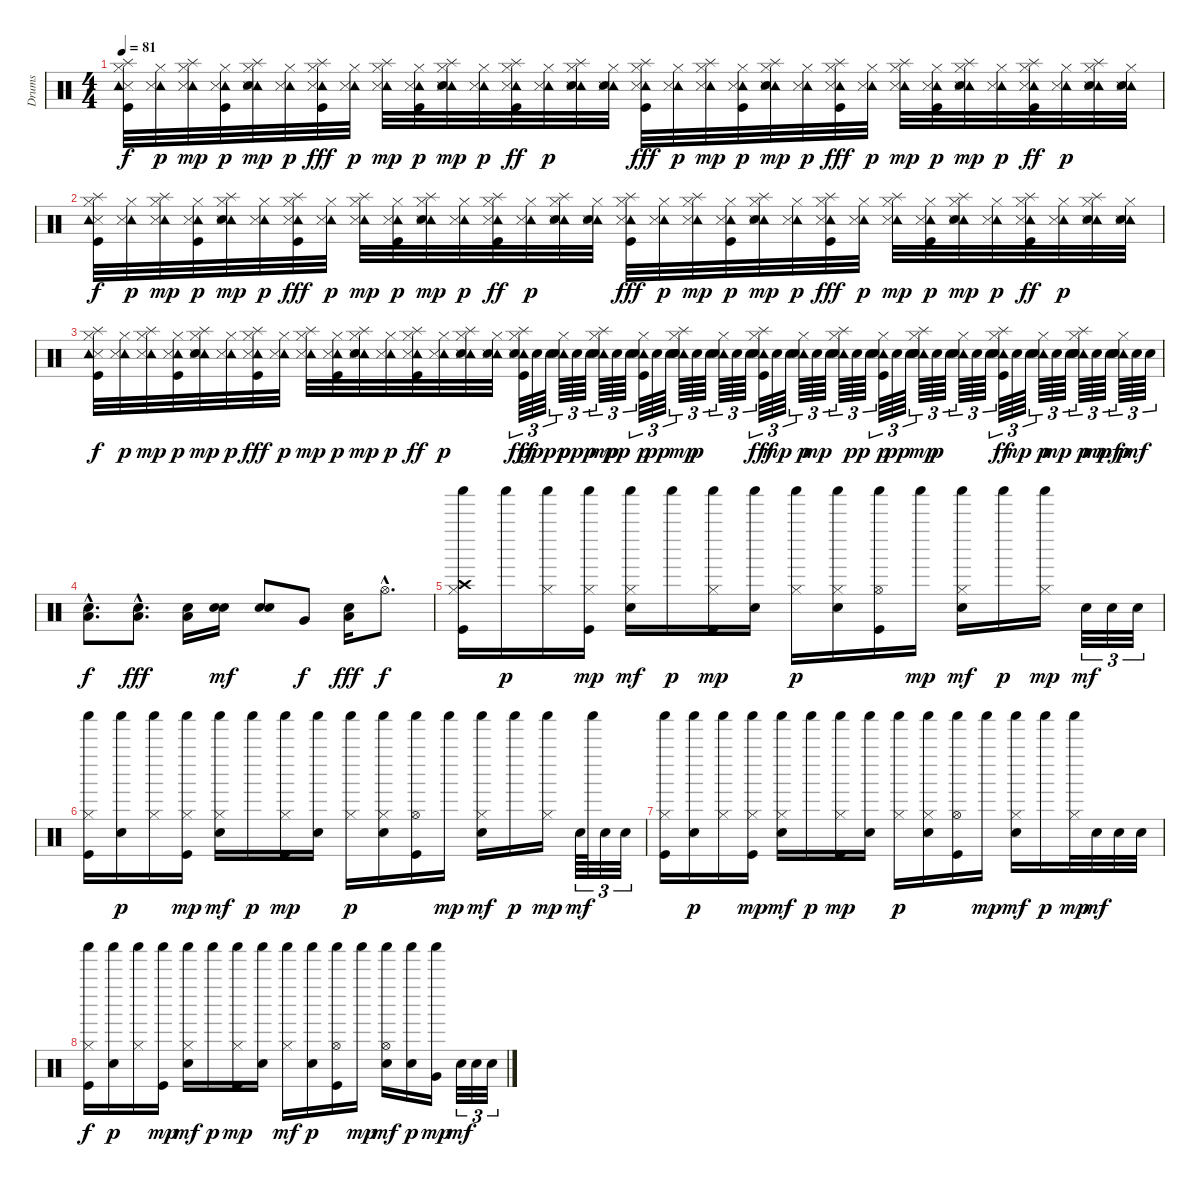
\track ("Drums" "Drums") {instrument percussion}
\staff {score}
\articulation defaults
\ts (4 4)
\tempo 81
\clef neutral
\ks c
("Splash (hit)" "Hi-Hat (closed)" "Snare (side stick) 3" "Kick (hit)" "Tambourine (hit)").32{dy f} ("Tambourine (hit)" "Hi-Hat (closed)" "Snare (side stick) 3").32{dy p} ("Tambourine (hit)" "Splash (hit)" "Hi-Hat (closed)" "Snare (side stick) 3").32{dy mp} ("Tambourine (hit)" "Hi-Hat (closed)" "Snare (side stick) 3" "Kick (hit)").32{dy p} ("Tambourine (hit)" "Splash (hit)" "Hi-Hat (closed)" "Snare (side stick) 3" "Snare (hit) 2").32{dy mp} ("Tambourine (hit)" "Hi-Hat (closed)" "Snare (side stick) 3").32{dy p} ("Tambourine (hit)" "Splash (hit)" "Hi-Hat (closed)" "Snare (side stick) 3" "Kick (hit)").32{dy fff} ("Tambourine (hit)" "Hi-Hat (closed)" "Snare (side stick) 3").32{dy p} ("Tambourine (hit)" "Splash (hit)" "Hi-Hat (closed)" "Snare (side stick) 3").32{dy mp} ("Tambourine (hit)" "Hi-Hat (closed)" "Snare (side stick) 3" "Kick (hit)").32{dy p} ("Tambourine (hit)" "Splash (hit)" "Hi-Hat (closed)" "Snare (side stick) 3" "Snare (hit) 2").32{dy mp} ("Tambourine (hit)" "Hi-Hat (closed)" "Snare (side stick) 3").32{dy p} ("Tambourine (hit)" "Splash (hit)" "Hi-Hat (closed)" "Snare (side stick) 3" "Kick (hit)").32{dy ff} ("Tambourine (hit)" "Hi-Hat (closed)" "Snare (side stick) 3").32{dy p} ("Tambourine (hit)" "Splash (hit)" "Hi-Hat (closed)" "Snare (side stick) 3" "Snare (hit) 2").32 ("Tambourine (hit)" "Hi-Hat (closed)" "Snare (side stick) 3" "Snare (hit) 2").32 ("Tambourine (hit)" "Splash (hit)" "Hi-Hat (closed)" "Snare (side stick) 3" "Kick (hit)").32{dy fff} ("Tambourine (hit)" "Hi-Hat (closed)" "Snare (side stick) 3").32{dy p} ("Tambourine (hit)" "Splash (hit)" "Hi-Hat (closed)" "Snare (side stick) 3").32{dy mp} ("Tambourine (hit)" "Hi-Hat (closed)" "Snare (side stick) 3" "Kick (hit)").32{dy p} ("Tambourine (hit)" "Splash (hit)" "Hi-Hat (closed)" "Snare (side stick) 3" "Snare (hit) 2").32{dy mp} ("Tambourine (hit)" "Hi-Hat (closed)" "Snare (side stick) 3").32{dy p} ("Tambourine (hit)" "Splash (hit)" "Hi-Hat (closed)" "Snare (side stick) 3" "Kick (hit)").32{dy fff} ("Tambourine (hit)" "Hi-Hat (closed)" "Snare (side stick) 3").32{dy p} ("Tambourine (hit)" "Splash (hit)" "Hi-Hat (closed)" "Snare (side stick) 3").32{dy mp} ("Tambourine (hit)" "Hi-Hat (closed)" "Snare (side stick) 3" "Kick (hit)").32{dy p} ("Tambourine (hit)" "Splash (hit)" "Hi-Hat (closed)" "Snare (side stick) 3" "Snare (hit) 2").32{dy mp} ("Tambourine (hit)" "Hi-Hat (closed)" "Snare (side stick) 3").32{dy p} ("Tambourine (hit)" "Splash (hit)" "Hi-Hat (closed)" "Snare (side stick) 3" "Kick (hit)").32{dy ff} ("Tambourine (hit)" "Hi-Hat (closed)" "Snare (side stick) 3").32{dy p} ("Tambourine (hit)" "Splash (hit)" "Hi-Hat (closed)" "Snare (side stick) 3" "Snare (hit) 2").32 ("Tambourine (hit)" "Hi-Hat (closed)" "Snare (side stick) 3" "Snare (hit) 2").32 |
("Hi-Hat (closed)" "Snare (side stick) 3" "Kick (hit)" "Splash (hit)" "Tambourine (hit)").32{dy f} ("Tambourine (hit)" "Hi-Hat (closed)" "Snare (side stick) 3").32{dy p} ("Tambourine (hit)" "Splash (hit)" "Hi-Hat (closed)" "Snare (side stick) 3").32{dy mp} ("Tambourine (hit)" "Hi-Hat (closed)" "Snare (side stick) 3" "Kick (hit)").32{dy p} ("Tambourine (hit)" "Splash (hit)" "Hi-Hat (closed)" "Snare (side stick) 3" "Snare (hit) 2").32{dy mp} ("Tambourine (hit)" "Hi-Hat (closed)" "Snare (side stick) 3").32{dy p} ("Tambourine (hit)" "Splash (hit)" "Hi-Hat (closed)" "Snare (side stick) 3" "Kick (hit)").32{dy fff} ("Tambourine (hit)" "Hi-Hat (closed)" "Snare (side stick) 3").32{dy p} ("Tambourine (hit)" "Splash (hit)" "Hi-Hat (closed)" "Snare (side stick) 3").32{dy mp} ("Tambourine (hit)" "Hi-Hat (closed)" "Snare (side stick) 3" "Kick (hit)").32{dy p} ("Tambourine (hit)" "Splash (hit)" "Hi-Hat (closed)" "Snare (side stick) 3" "Snare (hit) 2").32{dy mp} ("Tambourine (hit)" "Hi-Hat (closed)" "Snare (side stick) 3").32{dy p} ("Tambourine (hit)" "Splash (hit)" "Hi-Hat (closed)" "Snare (side stick) 3" "Kick (hit)").32{dy ff} ("Tambourine (hit)" "Hi-Hat (closed)" "Snare (side stick) 3").32{dy p} ("Tambourine (hit)" "Splash (hit)" "Hi-Hat (closed)" "Snare (side stick) 3" "Snare (hit) 2").32 ("Tambourine (hit)" "Hi-Hat (closed)" "Snare (side stick) 3" "Snare (hit) 2").32 ("Tambourine (hit)" "Splash (hit)" "Hi-Hat (closed)" "Snare (side stick) 3" "Kick (hit)").32{dy fff} ("Tambourine (hit)" "Hi-Hat (closed)" "Snare (side stick) 3").32{dy p} ("Tambourine (hit)" "Splash (hit)" "Hi-Hat (closed)" "Snare (side stick) 3").32{dy mp} ("Tambourine (hit)" "Hi-Hat (closed)" "Snare (side stick) 3" "Kick (hit)").32{dy p} ("Tambourine (hit)" "Splash (hit)" "Hi-Hat (closed)" "Snare (side stick) 3" "Snare (hit) 2").32{dy mp} ("Tambourine (hit)" "Hi-Hat (closed)" "Snare (side stick) 3").32{dy p} ("Tambourine (hit)" "Splash (hit)" "Hi-Hat (closed)" "Snare (side stick) 3" "Kick (hit)").32{dy fff} ("Tambourine (hit)" "Hi-Hat (closed)" "Snare (side stick) 3").32{dy p} ("Tambourine (hit)" "Splash (hit)" "Hi-Hat (closed)" "Snare (side stick) 3").32{dy mp} ("Tambourine (hit)" "Hi-Hat (closed)" "Snare (side stick) 3" "Kick (hit)").32{dy p} ("Tambourine (hit)" "Splash (hit)" "Hi-Hat (closed)" "Snare (side stick) 3" "Snare (hit) 2").32{dy mp} ("Tambourine (hit)" "Hi-Hat (closed)" "Snare (side stick) 3").32{dy p} ("Tambourine (hit)" "Splash (hit)" "Hi-Hat (closed)" "Snare (side stick) 3" "Kick (hit)").32{dy ff} ("Tambourine (hit)" "Hi-Hat (closed)" "Snare (side stick) 3").32{dy p} ("Tambourine (hit)" "Splash (hit)" "Hi-Hat (closed)" "Snare (side stick) 3" "Snare (hit) 2").32 ("Tambourine (hit)" "Hi-Hat (closed)" "Snare (side stick) 3" "Snare (hit) 2").32 |
("Hi-Hat (closed)" "Snare (side stick) 3" "Kick (hit)" "Tambourine (hit)" "Splash (hit)").32{dy f} ("Tambourine (hit)" "Hi-Hat (closed)" "Snare (side stick) 3").32{dy p} ("Tambourine (hit)" "Splash (hit)" "Hi-Hat (closed)" "Snare (side stick) 3").32{dy mp} ("Tambourine (hit)" "Hi-Hat (closed)" "Snare (side stick) 3" "Kick (hit)").32{dy p} ("Tambourine (hit)" "Splash (hit)" "Hi-Hat (closed)" "Snare (side stick) 3" "Snare (hit) 2").32{dy mp} ("Tambourine (hit)" "Hi-Hat (closed)" "Snare (side stick) 3").32{dy p} ("Tambourine (hit)" "Splash (hit)" "Hi-Hat (closed)" "Snare (side stick) 3" "Kick (hit)").32{dy fff} ("Tambourine (hit)" "Hi-Hat (closed)" "Snare (side stick) 3").32{dy p} ("Tambourine (hit)" "Splash (hit)" "Hi-Hat (closed)" "Snare (side stick) 3").32{dy mp} ("Tambourine (hit)" "Hi-Hat (closed)" "Snare (side stick) 3" "Kick (hit)").32{dy p} ("Tambourine (hit)" "Splash (hit)" "Hi-Hat (closed)" "Snare (side stick) 3" "Snare (hit) 2").32{dy mp} ("Tambourine (hit)" "Hi-Hat (closed)" "Snare (side stick) 3").32{dy p} ("Tambourine (hit)" "Splash (hit)" "Hi-Hat (closed)" "Snare (side stick) 3" "Kick (hit)").32{dy ff} ("Tambourine (hit)" "Hi-Hat (closed)" "Snare (side stick) 3").32{dy p} ("Tambourine (hit)" "Splash (hit)" "Hi-Hat (closed)" "Snare (side stick) 3" "Snare (hit) 2").32 ("Tambourine (hit)" "Hi-Hat (closed)" "Snare (side stick) 3" "Snare (hit) 2").32 ("Tambourine (hit)" "Snare (hit) 2" "Splash (hit)" "Hi-Hat (closed)" "Snare (side stick) 3" "Kick (hit)").64{tu (3 2) dy fff} "Snare (hit) 2".64{tu (3 2) dy ppp} "Snare (hit) 2".64{tu (3 2)} ("Tambourine (hit)" "Snare (hit) 2" "Hi-Hat (closed)" "Snare (side stick) 3").64{tu (3 2) dy p} "Snare (hit) 2".64{tu (3 2) dy ppp} "Snare (hit) 2".64{tu (3 2)} ("Tambourine (hit)" "Snare (hit) 2" "Splash (hit)" "Hi-Hat (closed)" "Snare (side stick) 3").64{tu (3 2) dy mp} "Snare (hit) 2".64{tu (3 2) dy pp} "Snare (hit) 2".64{tu (3 2)} ("Tambourine (hit)" "Snare (hit) 2" "Hi-Hat (closed)" "Snare (side stick) 3" "Kick (hit)").64{tu (3 2) dy p} "Snare (hit) 2".64{tu (3 2) dy pp} "Snare (hit) 2".64{tu (3 2)} ("Tambourine (hit)" "Snare (hit) 2" "Splash (hit)" "Hi-Hat (closed)" "Snare (side stick) 3" "Snare (hit) 2").64{tu (3 2) dy mp} "Snare (hit) 2".64{tu (3 2) dy p} "Snare (hit) 2".64{tu (3 2)} ("Tambourine (hit)" "Snare (hit) 2" "Hi-Hat (closed)" "Snare (side stick) 3").64{tu (3 2)} "Snare (hit) 2".64{tu (3 2)} "Snare (hit) 2".64{tu (3 2)} ("Tambourine (hit)" "Snare (hit) 2" "Splash (hit)" "Hi-Hat (closed)" "Snare (side stick) 3" "Kick (hit)").64{tu (3 2) dy fff} "Snare (hit) 2".64{tu (3 2) dy mp} "Snare (hit) 2".64{tu (3 2)} ("Tambourine (hit)" "Snare (hit) 2" "Hi-Hat (closed)" "Snare (side stick) 3").64{tu (3 2) dy p} "Snare (hit) 2".64{tu (3 2) dy mp} "Snare (hit) 2".64{tu (3 2)} ("Tambourine (hit)" "Snare (hit) 2" "Splash (hit)" "Hi-Hat (closed)" "Snare (side stick) 3").64{tu (3 2)} "Snare (hit) 2".64{tu (3 2) dy pp} "Snare (hit) 2".64{tu (3 2)} ("Tambourine (hit)" "Snare (hit) 2" "Hi-Hat (closed)" "Snare (side stick) 3" "Kick (hit)").64{tu (3 2) dy p} "Snare (hit) 2".64{tu (3 2) dy pp} "Snare (hit) 2".64{tu (3 2)} ("Tambourine (hit)" "Snare (hit) 2" "Splash (hit)" "Hi-Hat (closed)" "Snare (side stick) 3" "Snare (hit) 2").64{tu (3 2) dy mp} "Snare (hit) 2".64{tu (3 2) dy p} "Snare (hit) 2".64{tu (3 2)} ("Tambourine (hit)" "Snare (hit) 2" "Hi-Hat (closed)" "Snare (side stick) 3").64{tu (3 2)} "Snare (hit) 2".64{tu (3 2)} "Snare (hit) 2".64{tu (3 2)} ("Tambourine (hit)" "Snare (hit) 2" "Splash (hit)" "Hi-Hat (closed)" "Snare (side stick) 3" "Kick (hit)").64{tu (3 2) dy ff} "Snare (hit) 2".64{tu (3 2) dy mp} "Snare (hit) 2".64{tu (3 2)} ("Tambourine (hit)" "Snare (hit) 2" "Hi-Hat (closed)" "Snare (side stick) 3").64{tu (3 2) dy p} "Snare (hit) 2".64{tu (3 2) dy mp} "Snare (hit) 2".64{tu (3 2)} ("Tambourine (hit)" "Snare (hit) 2" "Splash (hit)" "Hi-Hat (closed)" "Snare (side stick) 3" "Snare (hit) 2").64{tu (3 2) dy p} "Snare (hit) 2".64{tu (3 2) dy mp} "Snare (hit) 2".64{tu (3 2) dy mf} ("Tambourine (hit)" "Snare (hit) 2" "Hi-Hat (closed)" "Snare (side stick) 3" "Snare (hit) 2").64{tu (3 2) dy p} "Snare (hit) 2".64{tu (3 2) dy mf} "Snare (hit) 2".64{tu (3 2)} |
("Low Floor Tom (hit)"{hac} "Snare (hit) 2"{hac}).8{d dy f} ("Low Floor Tom (hit)"{hac} "Snare (hit) 2"{hac}).8{d dy fff} ("Low Floor Tom (hit)" "Snare (hit) 2").16 ("Snare (hit) 2" "Snare (hit) 2").16{dy mf} ("Snare (hit) 2" "Snare (hit) 2").8 "Very Low Tom (hit)".8{dy f} ("Low Floor Tom (hit)" "Snare (hit) 2").16{dy fff} "Hi-Hat (open)"{hac}.8{d dy f} |
("Kick (hit)" "Hi-Hat (closed)" "Shaker (hit)" "Crash high (hit)").16 "Shaker (hit)".16{dy p} ("Hi-Hat (closed)" "Shaker (hit)").16 ("Kick (hit)" "Hi-Hat (closed)" "Shaker (hit)").16{dy mp} ("Snare (hit) 2" "Hi-Hat (closed)" "Shaker (hit)").16{dy mf} "Shaker (hit)".16{dy p} ("Kick (hit)" "Hi-Hat (closed)" "Shaker (hit)").16{dy mp} ("Snare (hit) 2" "Shaker (hit)").16 ("Hi-Hat (closed)" "Shaker (hit)").16{dy p} ("Snare (hit) 2" "Hi-Hat (closed)" "Shaker (hit)").16 ("Kick (hit)" "Hi-Hat (open)" "Shaker (hit)").16 "Shaker (hit)".16{dy mp} ("Snare (hit) 2" "Hi-Hat (closed)" "Shaker (hit)").16{dy mf} "Shaker (hit)".16{dy p} ("Hi-Hat (closed)" "Shaker (hit)").16{dy mp} "Snare (hit) 2".32{tu (3 2) dy mf} "Snare (hit) 2".32{tu (3 2)} "Snare (hit) 2".32{tu (3 2)} |
("Kick (hit)" "Hi-Hat (closed)" "Shaker (hit)").16 ("Snare (hit) 2" "Shaker (hit)").16{dy p} ("Hi-Hat (closed)" "Shaker (hit)").16 ("Kick (hit)" "Hi-Hat (closed)" "Shaker (hit)").16{dy mp} ("Snare (hit) 2" "Hi-Hat (closed)" "Shaker (hit)").16{dy mf} "Shaker (hit)".16{dy p} ("Kick (hit)" "Hi-Hat (closed)" "Shaker (hit)").16{dy mp} ("Snare (hit) 2" "Shaker (hit)").16 ("Hi-Hat (closed)" "Shaker (hit)").16{dy p} ("Snare (hit) 2" "Hi-Hat (closed)" "Shaker (hit)").16 ("Kick (hit)" "Hi-Hat (open)" "Shaker (hit)").16 "Shaker (hit)".16{dy mp} ("Snare (hit) 2" "Hi-Hat (closed)" "Shaker (hit)").16{dy mf} "Shaker (hit)".16{dy p} ("Hi-Hat (closed)" "Shaker (hit)").16{dy mp} "Snare (hit) 2".64{tu (3 2) dy mf} "Shaker (hit)".64{tu (3 2)} "Snare (hit) 2".32{tu (3 2)} "Snare (hit) 2".32{tu (3 2)} |
("Kick (hit)" "Hi-Hat (closed)" "Shaker (hit)").16 ("Snare (hit) 2" "Shaker (hit)").16{dy p} ("Hi-Hat (closed)" "Shaker (hit)").16 ("Kick (hit)" "Hi-Hat (closed)" "Shaker (hit)").16{dy mp} ("Snare (hit) 2" "Hi-Hat (closed)" "Shaker (hit)").16{dy mf} "Shaker (hit)".16{dy p} ("Kick (hit)" "Hi-Hat (closed)" "Shaker (hit)").16{dy mp} ("Snare (hit) 2" "Shaker (hit)").16 ("Hi-Hat (closed)" "Shaker (hit)").16{dy p} ("Snare (hit) 2" "Hi-Hat (closed)" "Shaker (hit)").16 ("Kick (hit)" "Hi-Hat (open)" "Shaker (hit)").16 "Shaker (hit)".16{dy mp} ("Snare (hit) 2" "Hi-Hat (closed)" "Shaker (hit)").16{dy mf} "Shaker (hit)".16{dy p} ("Hi-Hat (closed)" "Shaker (hit)").32{dy mp} "Snare (hit) 2".32{dy mf} "Snare (hit) 2".32 "Snare (hit) 2".32 |
("Shaker (hit)" "Hi-Hat (closed)" "Kick (hit)").16{dy f} ("Snare (hit) 2" "Shaker (hit)").16{dy p} ("Hi-Hat (closed)" "Shaker (hit)").16 ("Kick (hit)" "Shaker (hit)").16{dy mp} ("Snare (hit) 2" "Hi-Hat (closed)" "Shaker (hit)").16{dy mf} "Shaker (hit)".16{dy p} ("Kick (hit)" "Hi-Hat (closed)" "Shaker (hit)").16{dy mp} ("Snare (hit) 2" "Shaker (hit)").16 ("Hi-Hat (closed)" "Shaker (hit)").16{dy mf} ("Snare (hit) 2" "Shaker (hit)").16{dy p} ("Kick (hit)" "Hi-Hat (open)" "Shaker (hit)").16 "Shaker (hit)".16{dy mp} ("Snare (hit) 2" "Hi-Hat (open)" "Shaker (hit)").16{dy mf} ("Snare (hit) 2" "Shaker (hit)").16{dy p} ("Very Low Tom (hit)" "Shaker (hit)").16{dy mp} "Snare (hit) 2".32{tu (3 2) dy mf} "Snare (hit) 2".32{tu (3 2)} "Snare (hit) 2".32{tu (3 2)}
